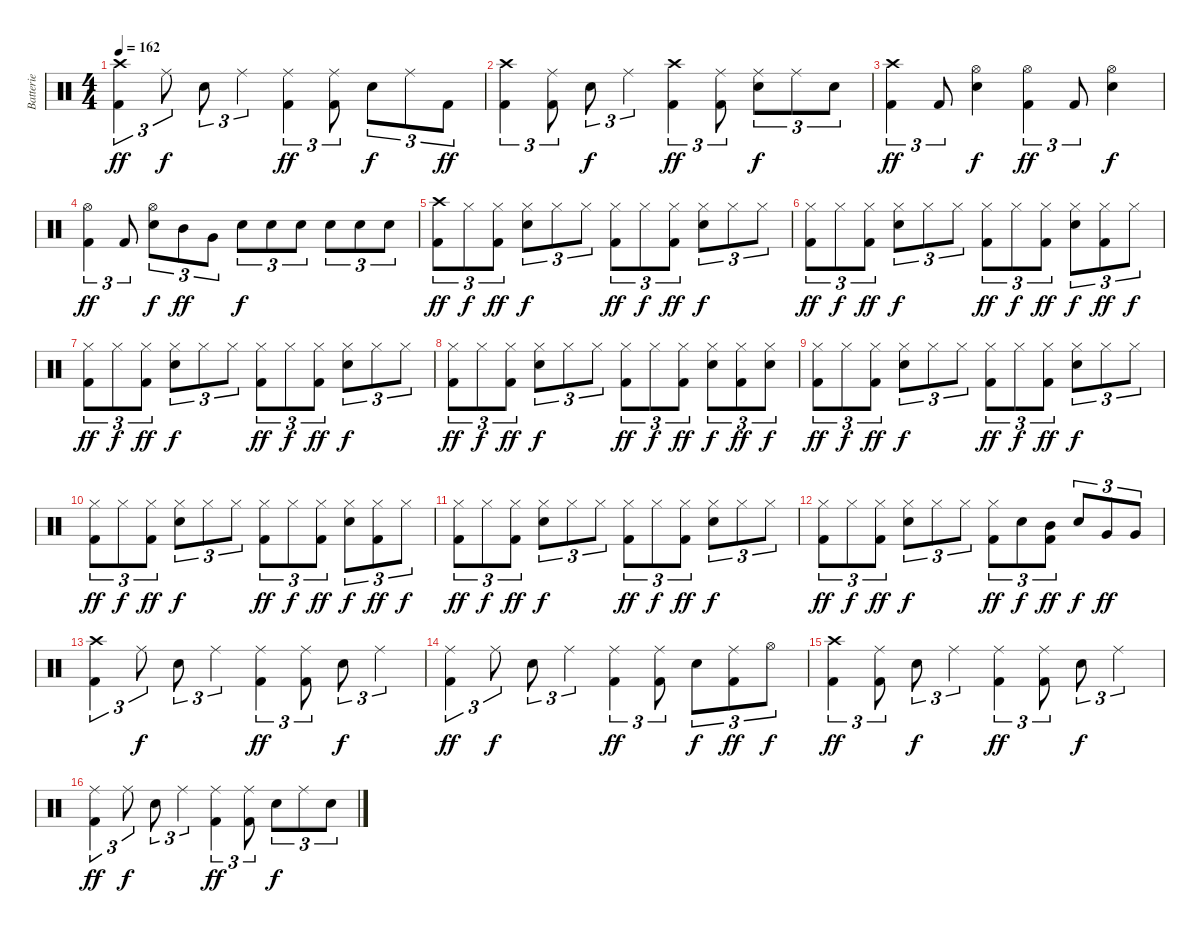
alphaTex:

\track ("Batterie" "Batterie") {instrument percussion}
\staff {score}
\articulation defaults
\ts (4 4)
\tempo 162
\clef neutral
\ks c
("Crash high (hit)" "Kick (hit) 2").4{tu (3 2) dy ff} "Ride (middle)".8{tu (3 2) dy f} "Snare (hit) 2".8{tu (3 2)} "Ride (middle)".4{tu (3 2)} ("Ride (middle)" "Kick (hit) 2").4{tu (3 2) dy ff} ("Ride (middle)" "Kick (hit) 2").8{tu (3 2)} "Snare (hit) 2".8{tu (3 2) dy f} "Ride (middle)".8{tu (3 2)} "Kick (hit) 2".8{tu (3 2) dy ff} |
("Crash high (hit)" "Kick (hit) 2").4{tu (3 2)} ("Ride (middle)" "Kick (hit) 2").8{tu (3 2)} "Snare (hit) 2".8{tu (3 2) dy f} "Ride (middle)".4{tu (3 2)} ("Crash high (hit)" "Kick (hit) 2").4{tu (3 2) dy ff} ("Ride (middle)" "Kick (hit) 2").8{tu (3 2)} ("Ride (middle)" "Snare (hit) 2").8{tu (3 2) dy f} "Ride (middle)".8{tu (3 2)} "Snare (hit) 2".8{tu (3 2)} |
("Crash high (hit)" "Kick (hit) 2").4{tu (3 2) dy ff} "Kick (hit) 2".8{tu (3 2)} ("Hi-Hat (open)" "Snare (hit) 2").4{dy f} ("Hi-Hat (open)" "Kick (hit) 2").4{tu (3 2) dy ff} "Kick (hit) 2".8{tu (3 2)} ("Hi-Hat (open)" "Snare (hit) 2").4{dy f} |
("Hi-Hat (open)" "Kick (hit) 2").4{tu (3 2) dy ff} "Kick (hit) 2".8{tu (3 2)} ("Hi-Hat (open)" "Snare (hit) 2").8{tu (3 2) dy f} "Mid Tom (hit)".8{tu (3 2) dy ff} "Very Low Tom (hit)".8{tu (3 2)} "Snare (hit) 2".8{tu (3 2) dy f} "Snare (hit) 2".8{tu (3 2)} "Snare (hit) 2".8{tu (3 2)} "Snare (hit) 2".8{tu (3 2)} "Snare (hit) 2".8{tu (3 2)} "Snare (hit) 2".8{tu (3 2)} |
("Crash high (hit)" "Kick (hit) 2").8{tu (3 2) dy ff} "Hi-Hat (closed)".8{tu (3 2) dy f} ("Hi-Hat (closed)" "Kick (hit) 2").8{tu (3 2) dy ff} ("Hi-Hat (closed)" "Snare (hit) 2").8{tu (3 2) dy f} "Hi-Hat (closed)".8{tu (3 2)} "Hi-Hat (closed)".8{tu (3 2)} ("Hi-Hat (closed)" "Kick (hit) 2").8{tu (3 2) dy ff} "Hi-Hat (closed)".8{tu (3 2) dy f} ("Hi-Hat (closed)" "Kick (hit) 2").8{tu (3 2) dy ff} ("Hi-Hat (closed)" "Snare (hit) 2").8{tu (3 2) dy f} "Hi-Hat (closed)".8{tu (3 2)} "Hi-Hat (closed)".8{tu (3 2)} |
("Hi-Hat (closed)" "Kick (hit) 2").8{tu (3 2) dy ff} "Hi-Hat (closed)".8{tu (3 2) dy f} ("Hi-Hat (closed)" "Kick (hit) 2").8{tu (3 2) dy ff} ("Hi-Hat (closed)" "Snare (hit) 2").8{tu (3 2) dy f} "Hi-Hat (closed)".8{tu (3 2)} "Hi-Hat (closed)".8{tu (3 2)} ("Hi-Hat (closed)" "Kick (hit) 2").8{tu (3 2) dy ff} "Hi-Hat (closed)".8{tu (3 2) dy f} ("Hi-Hat (closed)" "Kick (hit) 2").8{tu (3 2) dy ff} ("Hi-Hat (closed)" "Snare (hit) 2").8{tu (3 2) dy f} ("Hi-Hat (closed)" "Kick (hit) 2").8{tu (3 2) dy ff} "Hi-Hat (closed)".8{tu (3 2) dy f} |
("Hi-Hat (closed)" "Kick (hit) 2").8{tu (3 2) dy ff} "Hi-Hat (closed)".8{tu (3 2) dy f} ("Hi-Hat (closed)" "Kick (hit) 2").8{tu (3 2) dy ff} ("Hi-Hat (closed)" "Snare (hit) 2").8{tu (3 2) dy f} "Hi-Hat (closed)".8{tu (3 2)} "Hi-Hat (closed)".8{tu (3 2)} ("Hi-Hat (closed)" "Kick (hit) 2").8{tu (3 2) dy ff} "Hi-Hat (closed)".8{tu (3 2) dy f} ("Hi-Hat (closed)" "Kick (hit) 2").8{tu (3 2) dy ff} ("Hi-Hat (closed)" "Snare (hit) 2").8{tu (3 2) dy f} "Hi-Hat (closed)".8{tu (3 2)} "Hi-Hat (closed)".8{tu (3 2)} |
("Hi-Hat (closed)" "Kick (hit) 2").8{tu (3 2) dy ff} "Hi-Hat (closed)".8{tu (3 2) dy f} ("Hi-Hat (closed)" "Kick (hit) 2").8{tu (3 2) dy ff} ("Hi-Hat (closed)" "Snare (hit) 2").8{tu (3 2) dy f} "Hi-Hat (closed)".8{tu (3 2)} "Hi-Hat (closed)".8{tu (3 2)} ("Hi-Hat (closed)" "Kick (hit) 2").8{tu (3 2) dy ff} "Hi-Hat (closed)".8{tu (3 2) dy f} ("Hi-Hat (closed)" "Kick (hit) 2").8{tu (3 2) dy ff} ("Hi-Hat (closed)" "Snare (hit) 2").8{tu (3 2) dy f} ("Hi-Hat (closed)" "Kick (hit) 2").8{tu (3 2) dy ff} ("Hi-Hat (closed)" "Snare (hit) 2").8{tu (3 2) dy f} |
("Hi-Hat (closed)" "Kick (hit) 2").8{tu (3 2) dy ff} "Hi-Hat (closed)".8{tu (3 2) dy f} ("Hi-Hat (closed)" "Kick (hit) 2").8{tu (3 2) dy ff} ("Hi-Hat (closed)" "Snare (hit) 2").8{tu (3 2) dy f} "Hi-Hat (closed)".8{tu (3 2)} "Hi-Hat (closed)".8{tu (3 2)} ("Hi-Hat (closed)" "Kick (hit) 2").8{tu (3 2) dy ff} "Hi-Hat (closed)".8{tu (3 2) dy f} ("Hi-Hat (closed)" "Kick (hit) 2").8{tu (3 2) dy ff} ("Hi-Hat (closed)" "Snare (hit) 2").8{tu (3 2) dy f} "Hi-Hat (closed)".8{tu (3 2)} "Hi-Hat (closed)".8{tu (3 2)} |
("Hi-Hat (closed)" "Kick (hit) 2").8{tu (3 2) dy ff} "Hi-Hat (closed)".8{tu (3 2) dy f} ("Hi-Hat (closed)" "Kick (hit) 2").8{tu (3 2) dy ff} ("Hi-Hat (closed)" "Snare (hit) 2").8{tu (3 2) dy f} "Hi-Hat (closed)".8{tu (3 2)} "Hi-Hat (closed)".8{tu (3 2)} ("Hi-Hat (closed)" "Kick (hit) 2").8{tu (3 2) dy ff} "Hi-Hat (closed)".8{tu (3 2) dy f} ("Hi-Hat (closed)" "Kick (hit) 2").8{tu (3 2) dy ff} ("Hi-Hat (closed)" "Snare (hit) 2").8{tu (3 2) dy f} ("Hi-Hat (closed)" "Kick (hit) 2").8{tu (3 2) dy ff} "Hi-Hat (closed)".8{tu (3 2) dy f} |
("Hi-Hat (closed)" "Kick (hit) 2").8{tu (3 2) dy ff} "Hi-Hat (closed)".8{tu (3 2) dy f} ("Hi-Hat (closed)" "Kick (hit) 2").8{tu (3 2) dy ff} ("Hi-Hat (closed)" "Snare (hit) 2").8{tu (3 2) dy f} "Hi-Hat (closed)".8{tu (3 2)} "Hi-Hat (closed)".8{tu (3 2)} ("Hi-Hat (closed)" "Kick (hit) 2").8{tu (3 2) dy ff} "Hi-Hat (closed)".8{tu (3 2) dy f} ("Hi-Hat (closed)" "Kick (hit) 2").8{tu (3 2) dy ff} ("Hi-Hat (closed)" "Snare (hit) 2").8{tu (3 2) dy f} "Hi-Hat (closed)".8{tu (3 2)} "Hi-Hat (closed)".8{tu (3 2)} |
("Hi-Hat (closed)" "Kick (hit) 2").8{tu (3 2) dy ff} "Hi-Hat (closed)".8{tu (3 2) dy f} ("Hi-Hat (closed)" "Kick (hit) 2").8{tu (3 2) dy ff} ("Hi-Hat (closed)" "Snare (hit) 2").8{tu (3 2) dy f} "Hi-Hat (closed)".8{tu (3 2)} "Hi-Hat (closed)".8{tu (3 2)} ("Hi-Hat (closed)" "Kick (hit) 2").8{tu (3 2) dy ff} "Snare (hit) 2".8{tu (3 2) dy f} ("Mid Tom (hit)" "Kick (hit) 2").8{tu (3 2) dy ff} "Snare (hit) 2".8{tu (3 2) dy f} "Very Low Tom (hit)".8{tu (3 2) dy ff} "Very Low Tom (hit)".8{tu (3 2)} |
("Crash high (hit)" "Kick (hit) 2").4{tu (3 2)} "Ride (middle)".8{tu (3 2) dy f} "Snare (hit) 2".8{tu (3 2)} "Ride (middle)".4{tu (3 2)} ("Ride (middle)" "Kick (hit) 2").4{tu (3 2) dy ff} ("Ride (middle)" "Kick (hit) 2").8{tu (3 2)} "Snare (hit) 2".8{tu (3 2) dy f} "Ride (middle)".4{tu (3 2)} |
("Ride (middle)" "Kick (hit) 2").4{tu (3 2) dy ff} "Ride (middle)".8{tu (3 2) dy f} "Snare (hit) 2".8{tu (3 2)} "Ride (middle)".4{tu (3 2)} ("Ride (middle)" "Kick (hit) 2").4{tu (3 2) dy ff} ("Ride (middle)" "Kick (hit) 2").8{tu (3 2)} "Snare (hit) 2".8{tu (3 2) dy f} ("Ride (middle)" "Kick (hit) 2").8{tu (3 2) dy ff} "Hi-Hat (open)".8{tu (3 2) dy f} |
("Crash high (hit)" "Kick (hit) 2").4{tu (3 2) dy ff} ("Ride (middle)" "Kick (hit) 2").8{tu (3 2)} "Snare (hit) 2".8{tu (3 2) dy f} "Ride (middle)".4{tu (3 2)} ("Ride (middle)" "Kick (hit) 2").4{tu (3 2) dy ff} ("Ride (middle)" "Kick (hit) 2").8{tu (3 2)} "Snare (hit) 2".8{tu (3 2) dy f} "Ride (middle)".4{tu (3 2)} |
("Ride (middle)" "Kick (hit) 2").4{tu (3 2) dy ff} "Ride (middle)".8{tu (3 2) dy f} "Snare (hit) 2".8{tu (3 2)} "Ride (middle)".4{tu (3 2)} ("Ride (middle)" "Kick (hit) 2").4{tu (3 2) dy ff} ("Ride (middle)" "Kick (hit) 2").8{tu (3 2)} "Snare (hit) 2".8{tu (3 2) dy f} "Ride (middle)".8{tu (3 2)} "Snare (hit) 2".8{tu (3 2)}
